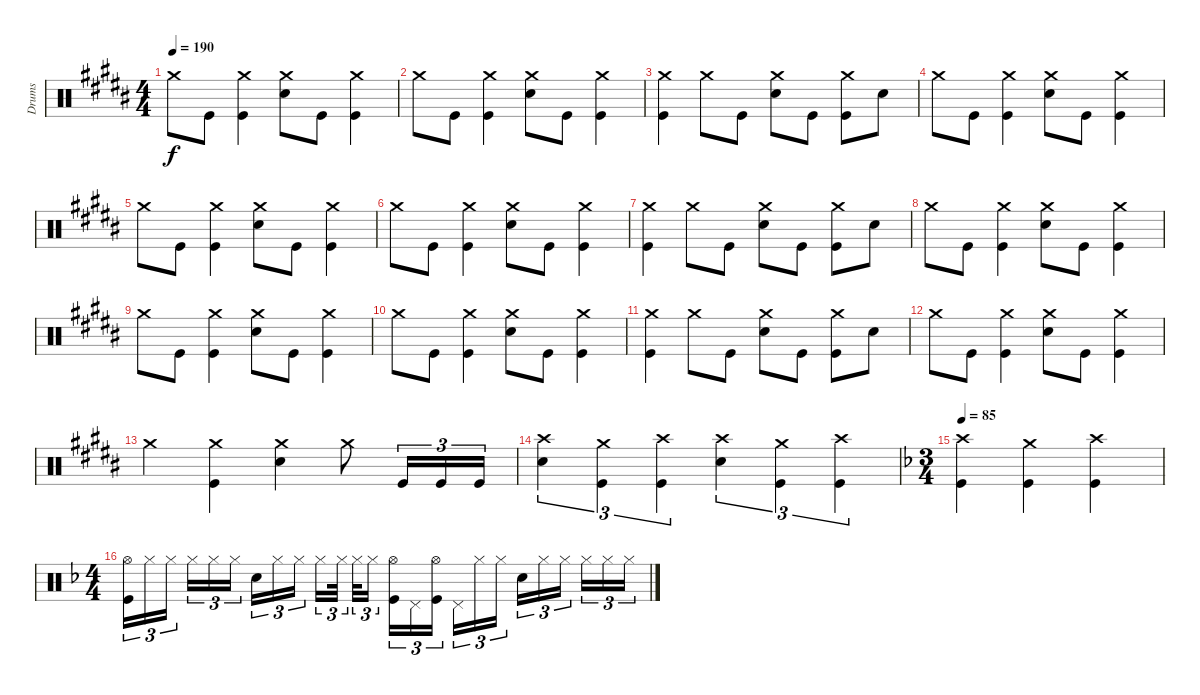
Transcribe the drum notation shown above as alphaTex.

\track ("Drums" "Drums") {instrument percussion}
\staff {score}
\articulation defaults
\ts (4 4)
\tempo 190
\clef neutral
\ks g#minor "Crash medium (hit)".8{dy f} "Kick (hit)".8
("Crash medium (hit)" "Kick (hit)").4 ("Snare (hit) 2" "Crash medium (hit)").8 "Kick (hit)".8 ("Kick (hit)" "Crash medium (hit)").4 |
"Crash medium (hit)".8 "Kick (hit)".8 ("Crash medium (hit)" "Kick (hit)").4 ("Snare (hit) 2" "Crash medium (hit)").8 "Kick (hit)".8 ("Kick (hit)" "Crash medium (hit)").4 |
\ks b
("Kick (hit)" "Crash medium (hit)").4 "Crash medium (hit)".8 "Kick (hit)".8 ("Snare (hit) 2" "Crash medium (hit)").8 "Kick (hit)".8 ("Kick (hit)" "Crash medium (hit)").8 "Snare (hit) 2".8 |
\ks g#minor "Crash medium (hit)".8 "Kick (hit)".8
("Crash medium (hit)" "Kick (hit)").4 ("Snare (hit) 2" "Crash medium (hit)").8 "Kick (hit)".8 ("Kick (hit)" "Crash medium (hit)").4 |
"Crash medium (hit)".8 "Kick (hit)".8 ("Crash medium (hit)" "Kick (hit)").4 ("Snare (hit) 2" "Crash medium (hit)").8 "Kick (hit)".8 ("Kick (hit)" "Crash medium (hit)").4 |
"Crash medium (hit)".8 "Kick (hit)".8 ("Crash medium (hit)" "Kick (hit)").4 ("Snare (hit) 2" "Crash medium (hit)").8 "Kick (hit)".8 ("Kick (hit)" "Crash medium (hit)").4 |
\ks b
("Kick (hit)" "Crash medium (hit)").4 "Crash medium (hit)".8 "Kick (hit)".8 ("Snare (hit) 2" "Crash medium (hit)").8 "Kick (hit)".8 ("Kick (hit)" "Crash medium (hit)").8 "Snare (hit) 2".8 |
\ks g#minor "Crash medium (hit)".8 "Kick (hit)".8
("Crash medium (hit)" "Kick (hit)").4 ("Snare (hit) 2" "Crash medium (hit)").8 "Kick (hit)".8 ("Kick (hit)" "Crash medium (hit)").4 |
"Crash medium (hit)".8 "Kick (hit)".8 ("Crash medium (hit)" "Kick (hit)").4 ("Snare (hit) 2" "Crash medium (hit)").8 "Kick (hit)".8 ("Kick (hit)" "Crash medium (hit)").4 |
"Crash medium (hit)".8 "Kick (hit)".8 ("Crash medium (hit)" "Kick (hit)").4 ("Snare (hit) 2" "Crash medium (hit)").8 "Kick (hit)".8 ("Kick (hit)" "Crash medium (hit)").4 |
\ks b
("Kick (hit)" "Crash medium (hit)").4 "Crash medium (hit)".8 "Kick (hit)".8 ("Snare (hit) 2" "Crash medium (hit)").8 "Kick (hit)".8 ("Kick (hit)" "Crash medium (hit)").8 "Snare (hit) 2".8 |
\ks g#minor "Crash medium (hit)".8 "Kick (hit)".8
("Crash medium (hit)" "Kick (hit)").4 ("Snare (hit) 2" "Crash medium (hit)").8 "Kick (hit)".8 ("Kick (hit)" "Crash medium (hit)").4 |
"Crash medium (hit)".4 ("Kick (hit)" "Crash medium (hit)").4 ("Snare (hit) 2" "Crash medium (hit)").4 "Crash medium (hit)".8 "Kick (hit)".16{tu (3 2)} "Kick (hit)".16{tu (3 2)} "Kick (hit)".16{tu (3 2)} |
("Snare (hit) 2" "Crash high (hit)").4{tu (3 2)} ("Crash medium (hit)" "Kick (hit)").4{tu (3 2)} ("Kick (hit)" "Crash high (hit)").4{tu (3 2)} ("Snare (hit) 2" "Crash high (hit)").4{tu (3 2)} ("Crash medium (hit)" "Kick (hit)").4{tu (3 2)} ("Kick (hit)" "Crash high (hit)").4{tu (3 2)} |
\ts (3 4)
\tempo 85
\ks f
("Crash high (hit)" "Kick (hit)").4 ("Crash medium (hit)" "Kick (hit)").4 ("Crash high (hit)" "Kick (hit)").4 |
\ts (4 4)
("Kick (hit)" "Hi-Hat (open)").16{tu (3 2)} "Hi-Hat (closed)".16{tu (3 2)} "Hi-Hat (closed)".16{tu (3 2) beam splitsecondary} "Hi-Hat (closed)".16{tu (3 2)} "Hi-Hat (closed)".16{tu (3 2)} "Hi-Hat (closed)".16{tu (3 2)} "Snare (hit) 2".16{tu (3 2)} "Hi-Hat (closed)".16{tu (3 2)} "Hi-Hat (closed)".16{tu (3 2) beam splitsecondary} "Hi-Hat (closed)".16{tu (3 2)} "Hi-Hat (closed)".32{tu (3 2) beam splitsecondary} "Hi-Hat (closed)".32{tu (3 2)} "Hi-Hat (closed)".16{tu (3 2)} ("Hi-Hat (open)" "Kick (hit)").16{tu (3 2)} "Pedal Hi-Hat (hit)".16{tu (3 2)} ("Hi-Hat (open)" "Kick (hit)").16{tu (3 2) beam splitsecondary} "Pedal Hi-Hat (hit)".16{tu (3 2)} "Hi-Hat (closed)".16{tu (3 2)} "Hi-Hat (closed)".16{tu (3 2)} "Snare (hit) 2".16{tu (3 2)} "Hi-Hat (closed)".16{tu (3 2)} "Hi-Hat (closed)".16{tu (3 2) beam splitsecondary} "Hi-Hat (closed)".16{tu (3 2)} "Hi-Hat (closed)".16{tu (3 2)} "Hi-Hat (closed)".16{tu (3 2)}
